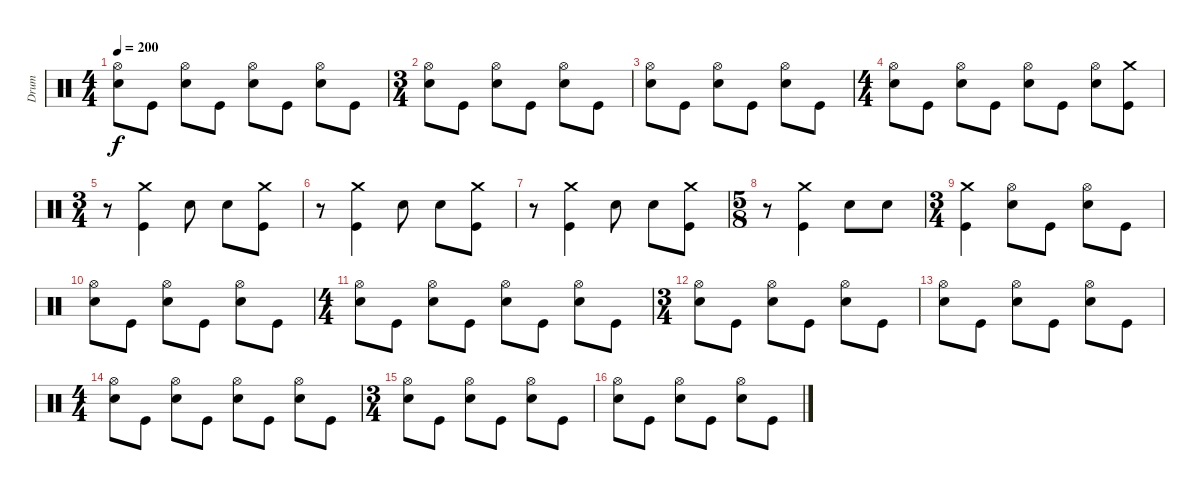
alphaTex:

\track ("Drum" "Drum") {instrument percussion}
\staff {score}
\articulation defaults
\ts (4 4)
\tempo 200
\clef neutral
\ks c
("Electric Snare (hit)" "Hi-Hat (open)").8{dy f} "Kick (hit)".8 ("Electric Snare (hit)" "Hi-Hat (open)").8 "Kick (hit)".8 ("Electric Snare (hit)" "Hi-Hat (open)").8 "Kick (hit)".8 ("Electric Snare (hit)" "Hi-Hat (open)").8 "Kick (hit)".8 |
\ts (3 4)
("Electric Snare (hit)" "Hi-Hat (open)").8 "Kick (hit)".8 ("Electric Snare (hit)" "Hi-Hat (open)").8 "Kick (hit)".8 ("Electric Snare (hit)" "Hi-Hat (open)").8 "Kick (hit)".8 |
("Electric Snare (hit)" "Hi-Hat (open)").8 "Kick (hit)".8 ("Electric Snare (hit)" "Hi-Hat (open)").8 "Kick (hit)".8 ("Electric Snare (hit)" "Hi-Hat (open)").8 "Kick (hit)".8 |
\ts (4 4)
("Electric Snare (hit)" "Hi-Hat (open)").8 "Kick (hit)".8 ("Electric Snare (hit)" "Hi-Hat (open)").8 "Kick (hit)".8 ("Electric Snare (hit)" "Hi-Hat (open)").8 "Kick (hit)".8 ("Electric Snare (hit)" "Hi-Hat (open)").8 ("Kick (hit)" "Crash medium (hit)").8 |
\ts (3 4)
r.8 ("Kick (hit)" "Crash medium (hit)").4 "Electric Snare (hit)".8 "Electric Snare (hit)".8 ("Kick (hit)" "Crash medium (hit)").8 |
r.8 ("Kick (hit)" "Crash medium (hit)").4 "Electric Snare (hit)".8 "Electric Snare (hit)".8 ("Kick (hit)" "Crash medium (hit)").8 |
r.8 ("Kick (hit)" "Crash medium (hit)").4 "Electric Snare (hit)".8 "Electric Snare (hit)".8 ("Kick (hit)" "Crash medium (hit)").8 |
\ts (5 8)
r.8 ("Kick (hit)" "Crash medium (hit)").4 "Electric Snare (hit)".8 "Electric Snare (hit)".8 |
\ts (3 4)
("Kick (hit)" "Crash medium (hit)").4 ("Electric Snare (hit)" "Hi-Hat (open)").8 "Kick (hit)".8 ("Electric Snare (hit)" "Hi-Hat (open)").8 "Kick (hit)".8 |
("Electric Snare (hit)" "Hi-Hat (open)").8 "Kick (hit)".8 ("Electric Snare (hit)" "Hi-Hat (open)").8 "Kick (hit)".8 ("Electric Snare (hit)" "Hi-Hat (open)").8 "Kick (hit)".8 |
\ts (4 4)
("Electric Snare (hit)" "Hi-Hat (open)").8 "Kick (hit)".8 ("Electric Snare (hit)" "Hi-Hat (open)").8 "Kick (hit)".8 ("Electric Snare (hit)" "Hi-Hat (open)").8 "Kick (hit)".8 ("Electric Snare (hit)" "Hi-Hat (open)").8 "Kick (hit)".8 |
\ts (3 4)
("Electric Snare (hit)" "Hi-Hat (open)").8 "Kick (hit)".8 ("Electric Snare (hit)" "Hi-Hat (open)").8 "Kick (hit)".8 ("Electric Snare (hit)" "Hi-Hat (open)").8 "Kick (hit)".8 |
("Electric Snare (hit)" "Hi-Hat (open)").8 "Kick (hit)".8 ("Electric Snare (hit)" "Hi-Hat (open)").8 "Kick (hit)".8 ("Electric Snare (hit)" "Hi-Hat (open)").8 "Kick (hit)".8 |
\ts (4 4)
("Electric Snare (hit)" "Hi-Hat (open)").8 "Kick (hit)".8 ("Electric Snare (hit)" "Hi-Hat (open)").8 "Kick (hit)".8 ("Electric Snare (hit)" "Hi-Hat (open)").8 "Kick (hit)".8 ("Electric Snare (hit)" "Hi-Hat (open)").8 "Kick (hit)".8 |
\ts (3 4)
("Electric Snare (hit)" "Hi-Hat (open)").8 "Kick (hit)".8 ("Electric Snare (hit)" "Hi-Hat (open)").8 "Kick (hit)".8 ("Electric Snare (hit)" "Hi-Hat (open)").8 "Kick (hit)".8 |
("Electric Snare (hit)" "Hi-Hat (open)").8 "Kick (hit)".8 ("Electric Snare (hit)" "Hi-Hat (open)").8 "Kick (hit)".8 ("Electric Snare (hit)" "Hi-Hat (open)").8 "Kick (hit)".8
